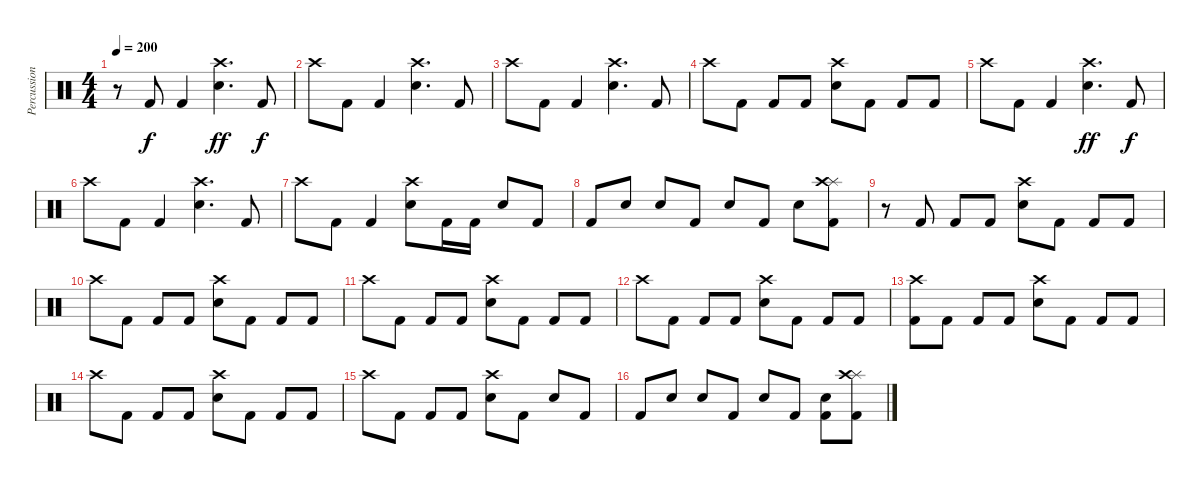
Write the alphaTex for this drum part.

\track ("Percussion" "Percussion") {instrument percussion}
\staff {score}
\articulation defaults
\ts (4 4)
\tempo 200
\clef neutral
\ks c
r.8{dy f} "Kick (hit) 2".8 "Kick (hit) 2".4 ("Crash high (hit)" "Snare (hit) 2").4{d dy ff} "Kick (hit) 2".8{dy f} |
"Crash high (hit)".8 "Kick (hit) 2".8 "Kick (hit) 2".4 ("Crash high (hit)" "Snare (hit) 2").4{d} "Kick (hit) 2".8 |
"Crash high (hit)".8 "Kick (hit) 2".8 "Kick (hit) 2".4 ("Crash high (hit)" "Snare (hit) 2").4{d} "Kick (hit) 2".8 |
"Crash high (hit)".8 "Kick (hit) 2".8 "Kick (hit) 2".8 "Kick (hit) 2".8 ("Crash high (hit)" "Snare (hit) 2").8 "Kick (hit) 2".8 "Kick (hit) 2".8 "Kick (hit) 2".8 |
"Crash high (hit)".8 "Kick (hit) 2".8 "Kick (hit) 2".4 ("Crash high (hit)" "Snare (hit) 2").4{d dy ff} "Kick (hit) 2".8{dy f} |
"Crash high (hit)".8 "Kick (hit) 2".8 "Kick (hit) 2".4 ("Crash high (hit)" "Snare (hit) 2").4{d} "Kick (hit) 2".8 |
"Crash high (hit)".8 "Kick (hit) 2".8 "Kick (hit) 2".4 ("Crash high (hit)" "Snare (hit) 2").8 "Kick (hit) 2".16 "Kick (hit) 2".16 "Snare (hit) 2".8 "Kick (hit) 2".8 |
"Kick (hit) 2".8 "Snare (hit) 2".8 "Snare (hit) 2".8 "Kick (hit) 2".8 "Snare (hit) 2".8 "Kick (hit) 2".8 "Snare (hit) 2".8 ("Splash (hit)" "Crash high (hit)" "Kick (hit) 2").8 |
r.8 "Kick (hit) 2".8 "Kick (hit) 2".8 "Kick (hit) 2".8 ("Crash high (hit)" "Snare (hit) 2").8 "Kick (hit) 2".8 "Kick (hit) 2".8 "Kick (hit) 2".8 |
"Crash high (hit)".8 "Kick (hit) 2".8 "Kick (hit) 2".8 "Kick (hit) 2".8 ("Crash high (hit)" "Snare (hit) 2").8 "Kick (hit) 2".8 "Kick (hit) 2".8 "Kick (hit) 2".8 |
"Crash high (hit)".8 "Kick (hit) 2".8 "Kick (hit) 2".8 "Kick (hit) 2".8 ("Crash high (hit)" "Snare (hit) 2").8 "Kick (hit) 2".8 "Kick (hit) 2".8 "Kick (hit) 2".8 |
"Crash high (hit)".8 "Kick (hit) 2".8 "Kick (hit) 2".8 "Kick (hit) 2".8 ("Crash high (hit)" "Snare (hit) 2").8 "Kick (hit) 2".8 "Kick (hit) 2".8 "Kick (hit) 2".8 |
("Crash high (hit)" "Kick (hit) 2").8 "Kick (hit) 2".8 "Kick (hit) 2".8 "Kick (hit) 2".8 ("Crash high (hit)" "Snare (hit) 2").8 "Kick (hit) 2".8 "Kick (hit) 2".8 "Kick (hit) 2".8 |
"Crash high (hit)".8 "Kick (hit) 2".8 "Kick (hit) 2".8 "Kick (hit) 2".8 ("Crash high (hit)" "Snare (hit) 2").8 "Kick (hit) 2".8 "Kick (hit) 2".8 "Kick (hit) 2".8 |
"Crash high (hit)".8 "Kick (hit) 2".8 "Kick (hit) 2".8 "Kick (hit) 2".8 ("Crash high (hit)" "Snare (hit) 2").8 "Kick (hit) 2".8 "Snare (hit) 2".8 "Kick (hit) 2".8 |
"Kick (hit) 2".8 "Snare (hit) 2".8 "Snare (hit) 2".8 "Kick (hit) 2".8 "Snare (hit) 2".8 "Kick (hit) 2".8 ("Snare (hit) 2" "Kick (hit) 2").8 ("Splash (hit)" "Crash high (hit)" "Kick (hit) 2").8
